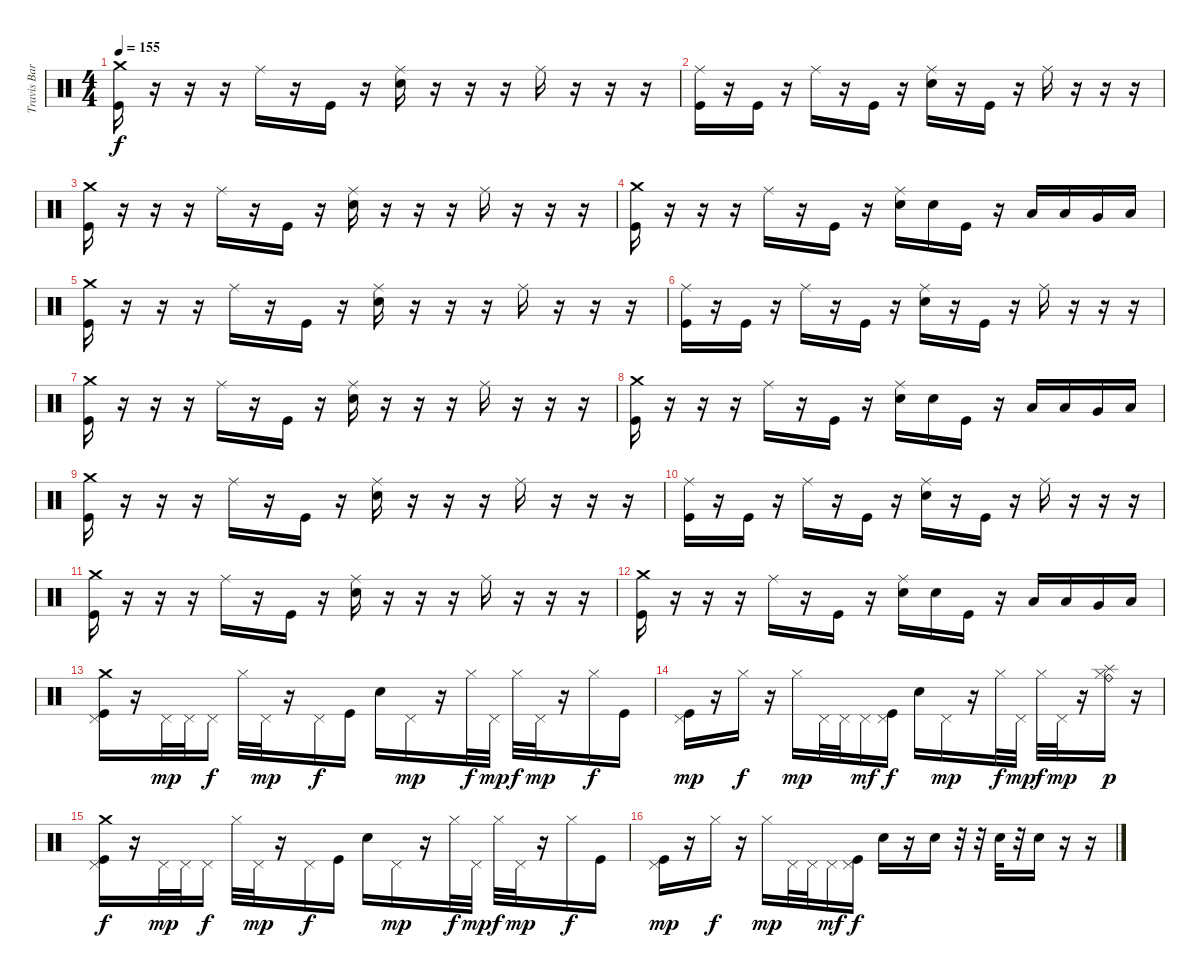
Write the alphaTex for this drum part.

\track ("Travis Barker(drums)" "Travis Bar") {instrument percussion}
\staff {score}
\articulation defaults
\ts (4 4)
\tempo 155
\clef neutral
\ks c
("Crash medium (hit)" "Kick (hit)").16{dy f} r.16 r.16 r.16 "Ride (middle)".16 r.16 "Kick (hit)".16 r.16 ("Ride (middle)" "Electric Snare (hit)").16 r.16 r.16 r.16 "Ride (middle)".16 r.16 r.16 r.16 |
("Ride (middle)" "Kick (hit)").16 r.16 "Kick (hit)".16 r.16 "Ride (middle)".16 r.16 "Kick (hit)".16 r.16 ("Ride (middle)" "Electric Snare (hit)").16 r.16 "Kick (hit)".16 r.16 "Ride (middle)".16 r.16 r.16 r.16 |
("Crash medium (hit)" "Kick (hit)").16 r.16 r.16 r.16 "Ride (middle)".16 r.16 "Kick (hit)".16 r.16 ("Ride (middle)" "Electric Snare (hit)").16 r.16 r.16 r.16 "Ride (middle)".16 r.16 r.16 r.16 |
("Crash medium (hit)" "Kick (hit)").16 r.16 r.16 r.16 "Ride (middle)".16 r.16 "Kick (hit)".16 r.16 ("Ride (middle)" "Electric Snare (hit)").16 "Electric Snare (hit)".16 "Kick (hit)".16 r.16 "Low Tom (hit)".16 "Low Tom (hit)".16 "Very Low Tom (hit)".16 "Low Floor Tom (hit)".16 |
("Crash medium (hit)" "Kick (hit)").16 r.16 r.16 r.16 "Ride (middle)".16 r.16 "Kick (hit)".16 r.16 ("Ride (middle)" "Electric Snare (hit)").16 r.16 r.16 r.16 "Ride (middle)".16 r.16 r.16 r.16 |
("Ride (middle)" "Kick (hit)").16 r.16 "Kick (hit)".16 r.16 "Ride (middle)".16 r.16 "Kick (hit)".16 r.16 ("Ride (middle)" "Electric Snare (hit)").16 r.16 "Kick (hit)".16 r.16 "Ride (middle)".16 r.16 r.16 r.16 |
("Crash medium (hit)" "Kick (hit)").16 r.16 r.16 r.16 "Ride (middle)".16 r.16 "Kick (hit)".16 r.16 ("Ride (middle)" "Electric Snare (hit)").16 r.16 r.16 r.16 "Ride (middle)".16 r.16 r.16 r.16 |
("Crash medium (hit)" "Kick (hit)").16 r.16 r.16 r.16 "Ride (middle)".16 r.16 "Kick (hit)".16 r.16 ("Ride (middle)" "Electric Snare (hit)").16 "Electric Snare (hit)".16 "Kick (hit)".16 r.16 "Low Tom (hit)".16 "Low Tom (hit)".16 "Very Low Tom (hit)".16 "Low Floor Tom (hit)".16 |
("Crash medium (hit)" "Kick (hit)").16 r.16 r.16 r.16 "Ride (middle)".16 r.16 "Kick (hit)".16 r.16 ("Ride (middle)" "Electric Snare (hit)").16 r.16 r.16 r.16 "Ride (middle)".16 r.16 r.16 r.16 |
("Ride (middle)" "Kick (hit)").16 r.16 "Kick (hit)".16 r.16 "Ride (middle)".16 r.16 "Kick (hit)".16 r.16 ("Ride (middle)" "Electric Snare (hit)").16 r.16 "Kick (hit)".16 r.16 "Ride (middle)".16 r.16 r.16 r.16 |
("Crash medium (hit)" "Kick (hit)").16 r.16 r.16 r.16 "Ride (middle)".16 r.16 "Kick (hit)".16 r.16 ("Ride (middle)" "Electric Snare (hit)").16 r.16 r.16 r.16 "Ride (middle)".16 r.16 r.16 r.16 |
("Crash medium (hit)" "Kick (hit)").16 r.16 r.16 r.16 "Ride (middle)".16 r.16 "Kick (hit)".16 r.16 ("Ride (middle)" "Electric Snare (hit)").16 "Electric Snare (hit)".16 "Kick (hit)".16 r.16 "Low Tom (hit)".16 "Low Tom (hit)".16 "Very Low Tom (hit)".16 "Low Floor Tom (hit)".16 |
("Crash medium (hit)" "Pedal Hi-Hat (hit)" "Kick (hit)").16 r.16 "Pedal Hi-Hat (hit)".32{dy mp} "Pedal Hi-Hat (hit)".32 "Pedal Hi-Hat (hit)".16{dy f} "Hi-Hat (closed)".32 "Pedal Hi-Hat (hit)".32{dy mp} r.16 "Pedal Hi-Hat (hit)".16{dy f} "Kick (hit)".16 "Electric Snare (hit)".16 "Pedal Hi-Hat (hit)".16{dy mp} r.16 "Hi-Hat (closed)".32{dy f} "Pedal Hi-Hat (hit)".32{dy mp} "Hi-Hat (closed)".32{dy f} "Pedal Hi-Hat (hit)".32{dy mp} r.16 "Hi-Hat (closed)".16{dy f} "Kick (hit)".16 |
("Pedal Hi-Hat (hit)" "Kick (hit)").16{dy mp} r.16 "Hi-Hat (closed)".16{dy f} r.16 "Hi-Hat (closed)".16{dy mp} "Pedal Hi-Hat (hit)".32 "Pedal Hi-Hat (hit)".32 "Pedal Hi-Hat (hit)".16{dy mf} ("Pedal Hi-Hat (hit)" "Kick (hit)").16{dy f} "Electric Snare (hit)".16 "Pedal Hi-Hat (hit)".16{dy mp} r.16 "Hi-Hat (closed)".32{dy f} "Pedal Hi-Hat (hit)".32{dy mp} "Hi-Hat (closed)".32{dy f} "Pedal Hi-Hat (hit)".32{dy mp} r.16 ("Splash (hit)" "Ride (bell)" "Hi-Hat (closed)").16{dy p} r.16 |
("Crash medium (hit)" "Pedal Hi-Hat (hit)" "Kick (hit)").16{dy f} r.16 "Pedal Hi-Hat (hit)".32{dy mp} "Pedal Hi-Hat (hit)".32 "Pedal Hi-Hat (hit)".16{dy f} "Hi-Hat (closed)".32 "Pedal Hi-Hat (hit)".32{dy mp} r.16 "Pedal Hi-Hat (hit)".16{dy f} "Kick (hit)".16 "Electric Snare (hit)".16 "Pedal Hi-Hat (hit)".16{dy mp} r.16 "Hi-Hat (closed)".32{dy f} "Pedal Hi-Hat (hit)".32{dy mp} "Hi-Hat (closed)".32{dy f} "Pedal Hi-Hat (hit)".32{dy mp} r.16 "Hi-Hat (closed)".16{dy f} "Kick (hit)".16 |
("Pedal Hi-Hat (hit)" "Kick (hit)").16{dy mp} r.16 "Hi-Hat (closed)".16{dy f} r.16 "Hi-Hat (closed)".16{dy mp} "Pedal Hi-Hat (hit)".32 "Pedal Hi-Hat (hit)".32 "Pedal Hi-Hat (hit)".16{dy mf} ("Pedal Hi-Hat (hit)" "Kick (hit)").16{dy f} "Electric Snare (hit)".16 r.16 "Electric Snare (hit)".16 r.32 r.32 "Electric Snare (hit)".32 r.32 "Electric Snare (hit)".16 r.16 r.16
